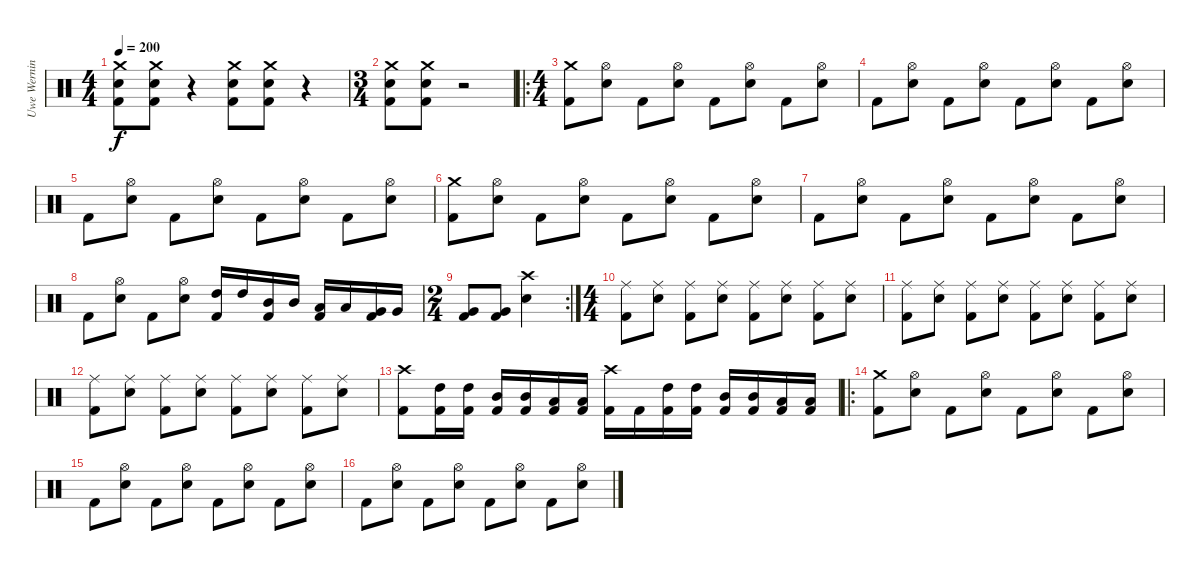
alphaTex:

\track ("Uwe Werning" "Uwe Wernin") {instrument percussion}
\staff {score}
\articulation defaults
\ts (4 4)
\tempo 200
\clef neutral
\ks c
("Crash medium (hit)" "Electric Snare (hit)" "Kick (hit) 2").8{dy f} ("Crash medium (hit)" "Electric Snare (hit)" "Kick (hit) 2").8 r.4 ("Crash medium (hit)" "Electric Snare (hit)" "Kick (hit) 2").8 ("Crash medium (hit)" "Electric Snare (hit)" "Kick (hit) 2").8 r.4 |
\ts (3 4)
("Crash medium (hit)" "Electric Snare (hit)" "Kick (hit) 2").8 ("Crash medium (hit)" "Electric Snare (hit)" "Kick (hit) 2").8 r.2 |
\ro
\ts (4 4)
("Crash medium (hit)" "Kick (hit) 2").8 ("Hi-Hat (open)" "Electric Snare (hit)").8 "Kick (hit) 2".8 ("Hi-Hat (open)" "Electric Snare (hit)").8 "Kick (hit) 2".8 ("Hi-Hat (open)" "Electric Snare (hit)").8 "Kick (hit) 2".8 ("Hi-Hat (open)" "Electric Snare (hit)").8 |
"Kick (hit) 2".8 ("Hi-Hat (open)" "Electric Snare (hit)").8 "Kick (hit) 2".8 ("Hi-Hat (open)" "Electric Snare (hit)").8 "Kick (hit) 2".8 ("Hi-Hat (open)" "Electric Snare (hit)").8 "Kick (hit) 2".8 ("Hi-Hat (open)" "Electric Snare (hit)").8 |
"Kick (hit) 2".8 ("Hi-Hat (open)" "Electric Snare (hit)").8 "Kick (hit) 2".8 ("Hi-Hat (open)" "Electric Snare (hit)").8 "Kick (hit) 2".8 ("Hi-Hat (open)" "Electric Snare (hit)").8 "Kick (hit) 2".8 ("Hi-Hat (open)" "Electric Snare (hit)").8 |
("Crash medium (hit)" "Kick (hit) 2").8 ("Hi-Hat (open)" "Electric Snare (hit)").8 "Kick (hit) 2".8 ("Hi-Hat (open)" "Electric Snare (hit)").8 "Kick (hit) 2".8 ("Hi-Hat (open)" "Electric Snare (hit)").8 "Kick (hit) 2".8 ("Hi-Hat (open)" "Electric Snare (hit)").8 |
"Kick (hit) 2".8 ("Hi-Hat (open)" "Electric Snare (hit)").8 "Kick (hit) 2".8 ("Hi-Hat (open)" "Electric Snare (hit)").8 "Kick (hit) 2".8 ("Hi-Hat (open)" "Electric Snare (hit)").8 "Kick (hit) 2".8 ("Hi-Hat (open)" "Electric Snare (hit)").8 |
"Kick (hit) 2".8 ("Hi-Hat (open)" "Electric Snare (hit)").8 "Kick (hit) 2".8 ("Hi-Hat (open)" "Electric Snare (hit)").8 ("High Tom (hit)" "Kick (hit) 2").16 "High Tom (hit)".16 ("Mid Tom (hit)" "Kick (hit) 2").16 "Mid Tom (hit)".16 ("Low Tom (hit)" "Kick (hit) 2").16 "Low Tom (hit)".16 ("Very Low Tom (hit)" "Kick (hit) 2").16 "Very Low Tom (hit)".16 |
\rc 2
\ts (2 4)
("Very Low Tom (hit)" "Kick (hit) 2").8 ("Very Low Tom (hit)" "Kick (hit) 2").8 ("Crash high (hit)" "Electric Snare (hit)").4 |
\ts (4 4)
("Ride (middle)" "Kick (hit) 2").8 ("Ride (middle)" "Electric Snare (hit)").8 ("Ride (middle)" "Kick (hit) 2").8 ("Ride (middle)" "Electric Snare (hit)").8 ("Ride (middle)" "Kick (hit) 2").8 ("Ride (middle)" "Electric Snare (hit)").8 ("Ride (middle)" "Kick (hit) 2").8 ("Ride (middle)" "Electric Snare (hit)").8 |
("Ride (middle)" "Kick (hit) 2").8 ("Ride (middle)" "Electric Snare (hit)").8 ("Ride (middle)" "Kick (hit) 2").8 ("Ride (middle)" "Electric Snare (hit)").8 ("Ride (middle)" "Kick (hit) 2").8 ("Ride (middle)" "Electric Snare (hit)").8 ("Ride (middle)" "Kick (hit) 2").8 ("Ride (middle)" "Electric Snare (hit)").8 |
("Ride (middle)" "Kick (hit) 2").8 ("Ride (middle)" "Electric Snare (hit)").8 ("Ride (middle)" "Kick (hit) 2").8 ("Ride (middle)" "Electric Snare (hit)").8 ("Ride (middle)" "Kick (hit) 2").8 ("Ride (middle)" "Electric Snare (hit)").8 ("Ride (middle)" "Kick (hit) 2").8 ("Ride (middle)" "Electric Snare (hit)").8 |
("Crash high (hit)" "Kick (hit) 2").8 ("High Tom (hit)" "Kick (hit) 2").16 ("High Tom (hit)" "Kick (hit) 2").16 ("Mid Tom (hit)" "Kick (hit) 2").16 ("Mid Tom (hit)" "Kick (hit) 2").16 ("Low Tom (hit)" "Kick (hit) 2").16 ("Low Tom (hit)" "Kick (hit) 2").16 ("Crash high (hit)" "Kick (hit) 2").16 "Kick (hit) 2".16 ("High Tom (hit)" "Kick (hit) 2").16 ("High Tom (hit)" "Kick (hit) 2").16 ("Mid Tom (hit)" "Kick (hit) 2").16 ("Mid Tom (hit)" "Kick (hit) 2").16 ("Low Tom (hit)" "Kick (hit) 2").16 ("Low Tom (hit)" "Kick (hit) 2").16 |
\ro
("Crash medium (hit)" "Kick (hit) 2").8 ("Hi-Hat (open)" "Electric Snare (hit)").8 "Kick (hit) 2".8 ("Hi-Hat (open)" "Electric Snare (hit)").8 "Kick (hit) 2".8 ("Hi-Hat (open)" "Electric Snare (hit)").8 "Kick (hit) 2".8 ("Hi-Hat (open)" "Electric Snare (hit)").8 |
"Kick (hit) 2".8 ("Hi-Hat (open)" "Electric Snare (hit)").8 "Kick (hit) 2".8 ("Hi-Hat (open)" "Electric Snare (hit)").8 "Kick (hit) 2".8 ("Hi-Hat (open)" "Electric Snare (hit)").8 "Kick (hit) 2".8 ("Hi-Hat (open)" "Electric Snare (hit)").8 |
"Kick (hit) 2".8 ("Hi-Hat (open)" "Electric Snare (hit)").8 "Kick (hit) 2".8 ("Hi-Hat (open)" "Electric Snare (hit)").8 "Kick (hit) 2".8 ("Hi-Hat (open)" "Electric Snare (hit)").8 "Kick (hit) 2".8 ("Hi-Hat (open)" "Electric Snare (hit)").8
